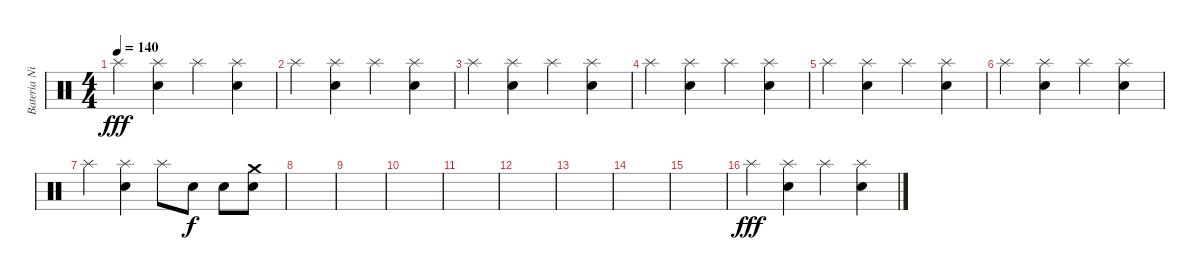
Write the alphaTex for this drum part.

\track ("Bateria Nicolas Cabrera" "Bateria Ni") {instrument percussion}
\staff {score}
\articulation defaults
\ts (4 4)
\tempo 140
\clef neutral
\ks c "Splash (hit)".4{dy fff}
("Splash (hit)" "Electric Snare (hit)").4 "Splash (hit)".4 ("Splash (hit)" "Electric Snare (hit)").4 |
"Splash (hit)".4 ("Splash (hit)" "Electric Snare (hit)").4 "Splash (hit)".4 ("Splash (hit)" "Electric Snare (hit)").4 |
"Splash (hit)".4 ("Splash (hit)" "Electric Snare (hit)").4 "Splash (hit)".4 ("Splash (hit)" "Electric Snare (hit)").4 |
"Splash (hit)".4 ("Splash (hit)" "Electric Snare (hit)").4 "Splash (hit)".4 ("Splash (hit)" "Electric Snare (hit)").4 |
"Splash (hit)".4 ("Splash (hit)" "Electric Snare (hit)").4 "Splash (hit)".4 ("Splash (hit)" "Electric Snare (hit)").4 |
"Splash (hit)".4 ("Splash (hit)" "Electric Snare (hit)").4 "Splash (hit)".4 ("Splash (hit)" "Electric Snare (hit)").4 |
"Splash (hit)".4 ("Splash (hit)" "Electric Snare (hit)").4 "Splash (hit)".8 "Snare (hit) 2".8{dy f} "Snare (hit) 2".8 ("Snare (hit) 2" "Crash medium (hit)").8 |
|
|
|
|
|
|
|
|
"Splash (hit)".4{dy fff} ("Splash (hit)" "Electric Snare (hit)").4 "Splash (hit)".4 ("Splash (hit)" "Electric Snare (hit)").4
